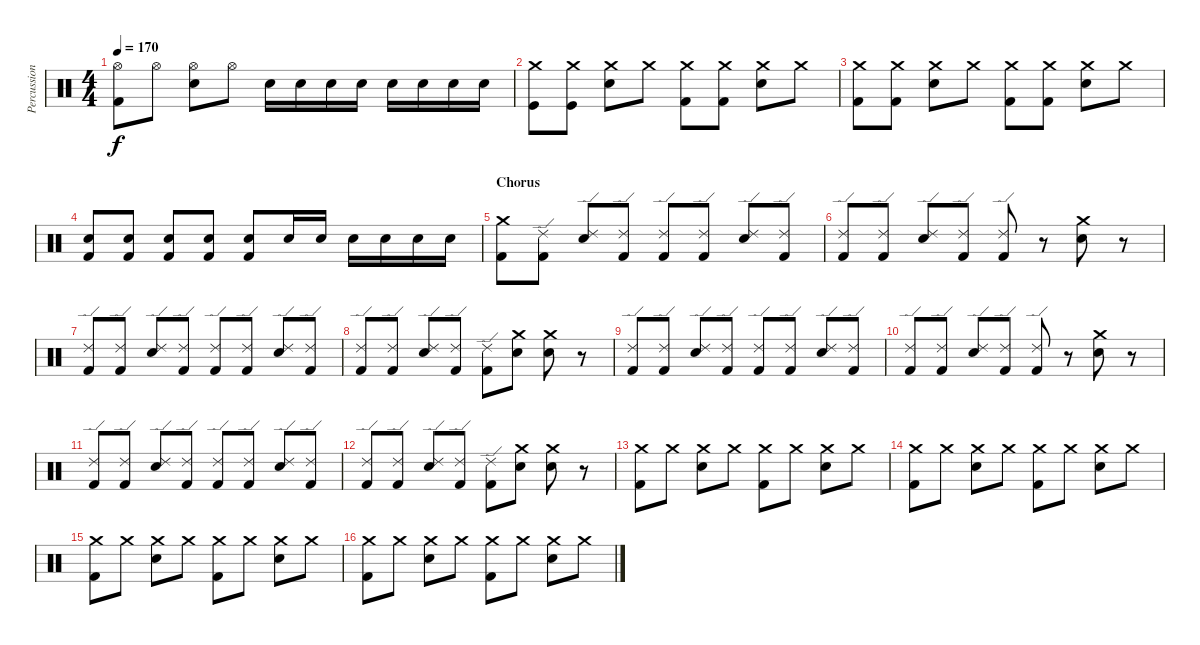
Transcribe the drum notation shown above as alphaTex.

\track ("Percussion" "Percussion") {instrument percussion}
\staff {score}
\articulation defaults
\ts (4 4)
\tempo 170
\clef neutral
\ks c
("Hi-Hat (open)" "Kick (hit) 2").8{dy f} "Hi-Hat (open)".8 ("Hi-Hat (open)" "Snare (hit) 2").8 "Hi-Hat (open)".8 "Snare (hit) 2".16 "Snare (hit) 2".16 "Snare (hit) 2".16 "Snare (hit) 2".16 "Snare (hit) 2".16 "Snare (hit) 2".16 "Snare (hit) 2".16 "Snare (hit) 2".16 |
("Crash medium (hit)" "Kick (hit)").8 ("Crash medium (hit)" "Kick (hit)").8 ("Crash medium (hit)" "Snare (hit) 2").8 "Crash medium (hit)".8 ("Crash medium (hit)" "Kick (hit) 2").8 ("Crash medium (hit)" "Kick (hit) 2").8 ("Crash medium (hit)" "Snare (hit) 2").8 "Crash medium (hit)".8 |
("Crash medium (hit)" "Kick (hit) 2").8 ("Crash medium (hit)" "Kick (hit) 2").8 ("Crash medium (hit)" "Snare (hit) 2").8 "Crash medium (hit)".8 ("Crash medium (hit)" "Kick (hit) 2").8 ("Crash medium (hit)" "Kick (hit) 2").8 ("Crash medium (hit)" "Snare (hit) 2").8 "Crash medium (hit)".8 |
("Snare (hit) 2" "Kick (hit) 2").8 ("Snare (hit) 2" "Kick (hit) 2").8 ("Snare (hit) 2" "Kick (hit) 2").8 ("Snare (hit) 2" "Kick (hit) 2").8 ("Snare (hit) 2" "Kick (hit) 2").8 "Snare (hit) 2".16 "Snare (hit) 2".16 "Snare (hit) 2".16 "Snare (hit) 2".16 "Snare (hit) 2".16 "Snare (hit) 2".16 |
\section ("" "Chorus")
("Crash medium (hit)" "Kick (hit) 2").8 ("Ride (edge) 2" "Kick (hit) 2").8 ("Ride (edge) 2" "Snare (hit) 2").8 ("Ride (edge) 2" "Kick (hit) 2").8 ("Ride (edge) 2" "Kick (hit) 2").8 ("Ride (edge) 2" "Kick (hit) 2").8 ("Ride (edge) 2" "Snare (hit) 2").8 ("Ride (edge) 2" "Kick (hit) 2").8 |
("Ride (edge) 2" "Kick (hit) 2").8 ("Ride (edge) 2" "Kick (hit) 2").8 ("Ride (edge) 2" "Snare (hit) 2").8 ("Ride (edge) 2" "Kick (hit) 2").8 ("Ride (edge) 2" "Kick (hit) 2").8 r.8 ("Crash medium (hit)" "Snare (hit) 2").8 r.8 |
("Ride (edge) 2" "Kick (hit) 2").8 ("Ride (edge) 2" "Kick (hit) 2").8 ("Ride (edge) 2" "Snare (hit) 2").8 ("Ride (edge) 2" "Kick (hit) 2").8 ("Ride (edge) 2" "Kick (hit) 2").8 ("Ride (edge) 2" "Kick (hit) 2").8 ("Ride (edge) 2" "Snare (hit) 2").8 ("Ride (edge) 2" "Kick (hit) 2").8 |
("Ride (edge) 2" "Kick (hit) 2").8 ("Ride (edge) 2" "Kick (hit) 2").8 ("Ride (edge) 2" "Snare (hit) 2").8 ("Ride (edge) 2" "Kick (hit) 2").8 ("Ride (edge) 2" "Kick (hit) 2").8 ("Crash medium (hit)" "Snare (hit) 2").8 ("Crash medium (hit)" "Snare (hit) 2").8 r.8 |
("Ride (edge) 2" "Kick (hit) 2").8 ("Ride (edge) 2" "Kick (hit) 2").8 ("Ride (edge) 2" "Snare (hit) 2").8 ("Ride (edge) 2" "Kick (hit) 2").8 ("Ride (edge) 2" "Kick (hit) 2").8 ("Ride (edge) 2" "Kick (hit) 2").8 ("Ride (edge) 2" "Snare (hit) 2").8 ("Ride (edge) 2" "Kick (hit) 2").8 |
("Ride (edge) 2" "Kick (hit) 2").8 ("Ride (edge) 2" "Kick (hit) 2").8 ("Ride (edge) 2" "Snare (hit) 2").8 ("Ride (edge) 2" "Kick (hit) 2").8 ("Ride (edge) 2" "Kick (hit) 2").8 r.8 ("Crash medium (hit)" "Snare (hit) 2").8 r.8 |
("Ride (edge) 2" "Kick (hit) 2").8 ("Ride (edge) 2" "Kick (hit) 2").8 ("Ride (edge) 2" "Snare (hit) 2").8 ("Ride (edge) 2" "Kick (hit) 2").8 ("Ride (edge) 2" "Kick (hit) 2").8 ("Ride (edge) 2" "Kick (hit) 2").8 ("Ride (edge) 2" "Snare (hit) 2").8 ("Ride (edge) 2" "Kick (hit) 2").8 |
("Ride (edge) 2" "Kick (hit) 2").8 ("Ride (edge) 2" "Kick (hit) 2").8 ("Ride (edge) 2" "Snare (hit) 2").8 ("Ride (edge) 2" "Kick (hit) 2").8 ("Ride (edge) 2" "Kick (hit) 2").8 ("Crash medium (hit)" "Snare (hit) 2").8 ("Crash medium (hit)" "Snare (hit) 2").8 r.8 |
("Crash medium (hit)" "Kick (hit) 2").8 "Crash medium (hit)".8 ("Crash medium (hit)" "Snare (hit) 2").8 "Crash medium (hit)".8 ("Crash medium (hit)" "Kick (hit) 2").8 "Crash medium (hit)".8 ("Crash medium (hit)" "Snare (hit) 2").8 "Crash medium (hit)".8 |
("Crash medium (hit)" "Kick (hit) 2").8 "Crash medium (hit)".8 ("Crash medium (hit)" "Snare (hit) 2").8 "Crash medium (hit)".8 ("Crash medium (hit)" "Kick (hit) 2").8 "Crash medium (hit)".8 ("Crash medium (hit)" "Snare (hit) 2").8 "Crash medium (hit)".8 |
("Crash medium (hit)" "Kick (hit) 2").8 "Crash medium (hit)".8 ("Crash medium (hit)" "Snare (hit) 2").8 "Crash medium (hit)".8 ("Crash medium (hit)" "Kick (hit) 2").8 "Crash medium (hit)".8 ("Crash medium (hit)" "Snare (hit) 2").8 "Crash medium (hit)".8 |
("Crash medium (hit)" "Kick (hit) 2").8 "Crash medium (hit)".8 ("Crash medium (hit)" "Snare (hit) 2").8 "Crash medium (hit)".8 ("Crash medium (hit)" "Kick (hit) 2").8 "Crash medium (hit)".8 ("Crash medium (hit)" "Snare (hit) 2").8 "Crash medium (hit)".8
